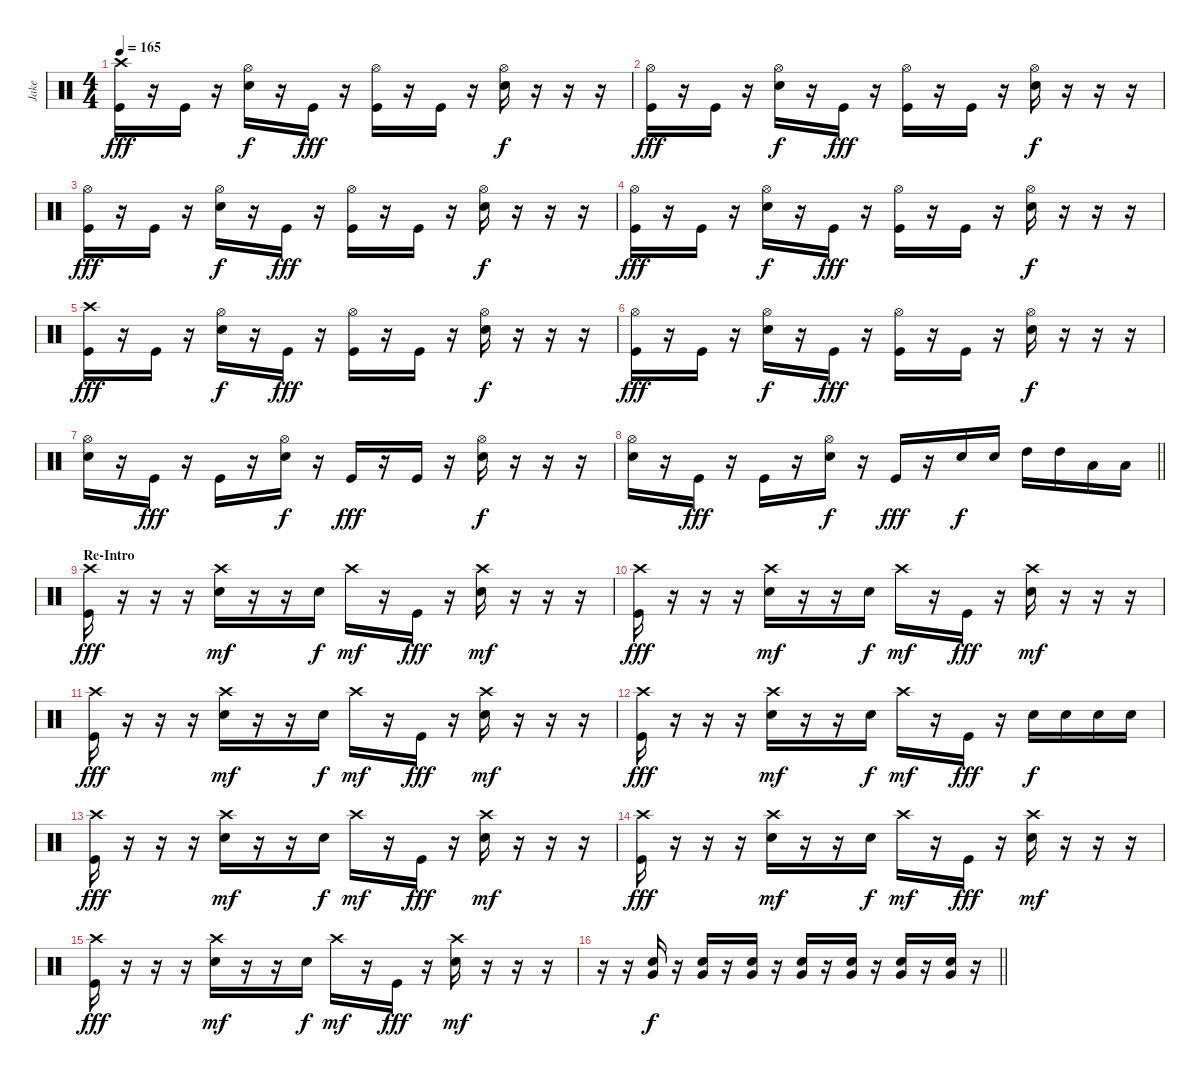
\track ("Jake" "Jake") {instrument percussion}
\staff {score}
\articulation defaults
\ts (4 4)
\tempo 165
\clef neutral
\ks c
("Crash high (hit)" "Kick (hit)").16{dy fff} r.16 "Kick (hit)".16 r.16 ("Hi-Hat (open)" "Electric Snare (hit)").16{dy f} r.16 "Kick (hit)".16{dy fff} r.16 ("Hi-Hat (open)" "Kick (hit)").16 r.16 "Kick (hit)".16 r.16 ("Hi-Hat (open)" "Electric Snare (hit)").16{dy f} r.16 r.16 r.16 |
("Hi-Hat (open)" "Kick (hit)").16{dy fff} r.16 "Kick (hit)".16 r.16 ("Hi-Hat (open)" "Electric Snare (hit)").16{dy f} r.16 "Kick (hit)".16{dy fff} r.16 ("Hi-Hat (open)" "Kick (hit)").16 r.16 "Kick (hit)".16 r.16 ("Hi-Hat (open)" "Electric Snare (hit)").16{dy f} r.16 r.16 r.16 |
("Hi-Hat (open)" "Kick (hit)").16{dy fff} r.16 "Kick (hit)".16 r.16 ("Hi-Hat (open)" "Electric Snare (hit)").16{dy f} r.16 "Kick (hit)".16{dy fff} r.16 ("Hi-Hat (open)" "Kick (hit)").16 r.16 "Kick (hit)".16 r.16 ("Hi-Hat (open)" "Electric Snare (hit)").16{dy f} r.16 r.16 r.16 |
("Hi-Hat (open)" "Kick (hit)").16{dy fff} r.16 "Kick (hit)".16 r.16 ("Hi-Hat (open)" "Electric Snare (hit)").16{dy f} r.16 "Kick (hit)".16{dy fff} r.16 ("Hi-Hat (open)" "Kick (hit)").16 r.16 "Kick (hit)".16 r.16 ("Hi-Hat (open)" "Electric Snare (hit)").16{dy f} r.16 r.16 r.16 |
("Crash high (hit)" "Kick (hit)").16{dy fff} r.16 "Kick (hit)".16 r.16 ("Hi-Hat (open)" "Electric Snare (hit)").16{dy f} r.16 "Kick (hit)".16{dy fff} r.16 ("Hi-Hat (open)" "Kick (hit)").16 r.16 "Kick (hit)".16 r.16 ("Hi-Hat (open)" "Electric Snare (hit)").16{dy f} r.16 r.16 r.16 |
("Hi-Hat (open)" "Kick (hit)").16{dy fff} r.16 "Kick (hit)".16 r.16 ("Hi-Hat (open)" "Electric Snare (hit)").16{dy f} r.16 "Kick (hit)".16{dy fff} r.16 ("Hi-Hat (open)" "Kick (hit)").16 r.16 "Kick (hit)".16 r.16 ("Hi-Hat (open)" "Electric Snare (hit)").16{dy f} r.16 r.16 r.16 |
("Hi-Hat (open)" "Electric Snare (hit)").16 r.16 "Kick (hit)".16{dy fff} r.16 "Kick (hit)".16 r.16 ("Hi-Hat (open)" "Electric Snare (hit)").16{dy f} r.16 "Kick (hit)".16{dy fff} r.16 "Kick (hit)".16 r.16 ("Hi-Hat (open)" "Electric Snare (hit)").16{dy f} r.16 r.16 r.16 |
\barLineRight lightlight
("Hi-Hat (open)" "Electric Snare (hit)").16 r.16 "Kick (hit)".16{dy fff} r.16 "Kick (hit)".16 r.16 ("Hi-Hat (open)" "Electric Snare (hit)").16{dy f} r.16 "Kick (hit)".16{dy fff} r.16 "Electric Snare (hit)".16{dy f} "Electric Snare (hit)".16 "High Tom (hit)".16 "High Tom (hit)".16 "Low Tom (hit)".16 "Low Tom (hit)".16 |
\section ("" "Re-Intro")
("Crash high (hit)" "Kick (hit)").16{dy fff} r.16 r.16 r.16 ("Crash high (hit)" "Electric Snare (hit)").16{dy mf} r.16 r.16 "Electric Snare (hit)".16{dy f} "Crash high (hit)".16{dy mf} r.16 "Kick (hit)".16{dy fff} r.16 ("Crash high (hit)" "Electric Snare (hit)").16{dy mf} r.16 r.16 r.16 |
("Crash high (hit)" "Kick (hit)").16{dy fff} r.16 r.16 r.16 ("Crash high (hit)" "Electric Snare (hit)").16{dy mf} r.16 r.16 "Electric Snare (hit)".16{dy f} "Crash high (hit)".16{dy mf} r.16 "Kick (hit)".16{dy fff} r.16 ("Crash high (hit)" "Electric Snare (hit)").16{dy mf} r.16 r.16 r.16 |
("Crash high (hit)" "Kick (hit)").16{dy fff} r.16 r.16 r.16 ("Crash high (hit)" "Electric Snare (hit)").16{dy mf} r.16 r.16 "Electric Snare (hit)".16{dy f} "Crash high (hit)".16{dy mf} r.16 "Kick (hit)".16{dy fff} r.16 ("Crash high (hit)" "Electric Snare (hit)").16{dy mf} r.16 r.16 r.16 |
("Crash high (hit)" "Kick (hit)").16{dy fff} r.16 r.16 r.16 ("Crash high (hit)" "Electric Snare (hit)").16{dy mf} r.16 r.16 "Electric Snare (hit)".16{dy f} "Crash high (hit)".16{dy mf} r.16 "Kick (hit)".16{dy fff} r.16 "Electric Snare (hit)".16{dy f} "Electric Snare (hit)".16 "Electric Snare (hit)".16 "Electric Snare (hit)".16 |
("Crash high (hit)" "Kick (hit)").16{dy fff} r.16 r.16 r.16 ("Crash high (hit)" "Electric Snare (hit)").16{dy mf} r.16 r.16 "Electric Snare (hit)".16{dy f} "Crash high (hit)".16{dy mf} r.16 "Kick (hit)".16{dy fff} r.16 ("Crash high (hit)" "Electric Snare (hit)").16{dy mf} r.16 r.16 r.16 |
("Crash high (hit)" "Kick (hit)").16{dy fff} r.16 r.16 r.16 ("Crash high (hit)" "Electric Snare (hit)").16{dy mf} r.16 r.16 "Electric Snare (hit)".16{dy f} "Crash high (hit)".16{dy mf} r.16 "Kick (hit)".16{dy fff} r.16 ("Crash high (hit)" "Electric Snare (hit)").16{dy mf} r.16 r.16 r.16 |
("Crash high (hit)" "Kick (hit)").16{dy fff} r.16 r.16 r.16 ("Crash high (hit)" "Electric Snare (hit)").16{dy mf} r.16 r.16 "Electric Snare (hit)".16{dy f} "Crash high (hit)".16{dy mf} r.16 "Kick (hit)".16{dy fff} r.16 ("Crash high (hit)" "Electric Snare (hit)").16{dy mf} r.16 r.16 r.16 |
\barLineRight lightlight
r.16 r.16 ("Very Low Tom (hit)" "Electric Snare (hit)").16{dy f} r.16 ("Very Low Tom (hit)" "Electric Snare (hit)").16 r.16 ("Very Low Tom (hit)" "Electric Snare (hit)").16 r.16 ("Very Low Tom (hit)" "Electric Snare (hit)").16 r.16 ("Very Low Tom (hit)" "Electric Snare (hit)").16 r.16 ("Very Low Tom (hit)" "Electric Snare (hit)").16 r.16 ("Very Low Tom (hit)" "Electric Snare (hit)").16 r.16
